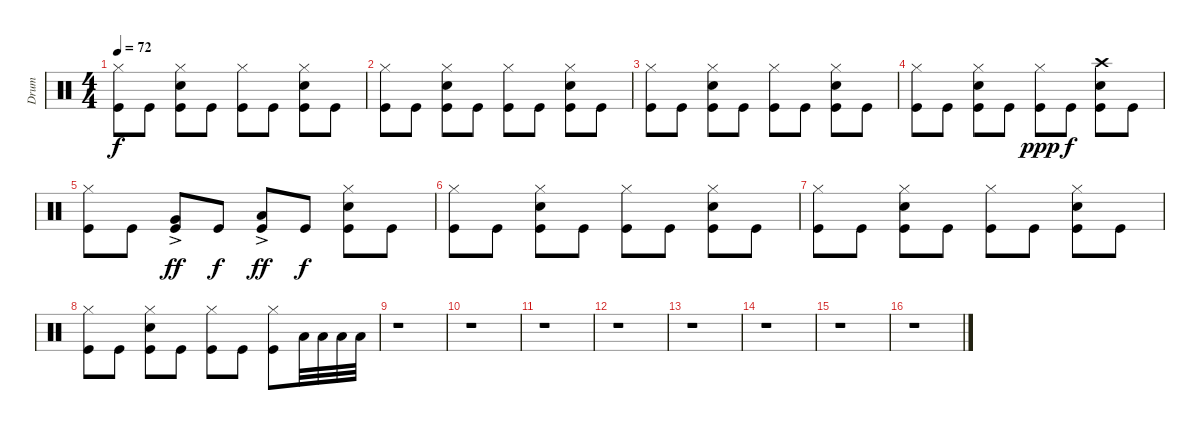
\track ("Drum" "Drum") {instrument percussion}
\staff {score}
\articulation defaults
\ts (4 4)
\tempo 72
\clef neutral
\ks c
("Hi-Hat (closed)" "Kick (hit)").8{dy f} "Kick (hit)".8 ("Kick (hit)" "Snare (hit) 2" "Hi-Hat (closed)").8 "Kick (hit)".8 ("Kick (hit)" "Hi-Hat (closed)").8 "Kick (hit)".8 ("Kick (hit)" "Snare (hit) 2" "Hi-Hat (closed)").8 "Kick (hit)".8 |
("Hi-Hat (closed)" "Kick (hit)").8 "Kick (hit)".8 ("Kick (hit)" "Snare (hit) 2" "Hi-Hat (closed)").8 "Kick (hit)".8 ("Kick (hit)" "Hi-Hat (closed)").8 "Kick (hit)".8 ("Kick (hit)" "Snare (hit) 2" "Hi-Hat (closed)").8 "Kick (hit)".8 |
("Hi-Hat (closed)" "Kick (hit)").8 "Kick (hit)".8 ("Kick (hit)" "Snare (hit) 2" "Hi-Hat (closed)").8 "Kick (hit)".8 ("Kick (hit)" "Hi-Hat (closed)").8 "Kick (hit)".8 ("Kick (hit)" "Snare (hit) 2" "Hi-Hat (closed)").8 "Kick (hit)".8 |
("Hi-Hat (closed)" "Kick (hit)").8 "Kick (hit)".8 ("Kick (hit)" "Snare (hit) 2" "Hi-Hat (closed)").8 "Kick (hit)".8 ("Kick (hit)" "Hi-Hat (closed)").8{dy ppp} "Kick (hit)".8{dy f} ("Kick (hit)" "Snare (hit) 2" "Crash high (hit)").8 "Kick (hit)".8 |
("Hi-Hat (closed)" "Kick (hit)").8 "Kick (hit)".8 ("Very Low Tom (hit)"{ac} "Kick (hit)").8{dy ff} "Kick (hit)".8{dy f} ("Kick (hit)" "Low Floor Tom (hit)"{ac}).8{dy ff} "Kick (hit)".8{dy f} ("Kick (hit)" "Snare (hit) 2" "Hi-Hat (closed)").8 "Kick (hit)".8 |
("Hi-Hat (closed)" "Kick (hit)").8 "Kick (hit)".8 ("Kick (hit)" "Snare (hit) 2" "Hi-Hat (closed)").8 "Kick (hit)".8 ("Kick (hit)" "Hi-Hat (closed)").8 "Kick (hit)".8 ("Kick (hit)" "Snare (hit) 2" "Hi-Hat (closed)").8 "Kick (hit)".8 |
("Hi-Hat (closed)" "Kick (hit)").8 "Kick (hit)".8 ("Kick (hit)" "Snare (hit) 2" "Hi-Hat (closed)").8 "Kick (hit)".8 ("Kick (hit)" "Hi-Hat (closed)").8 "Kick (hit)".8 ("Kick (hit)" "Snare (hit) 2" "Hi-Hat (closed)").8 "Kick (hit)".8 |
("Hi-Hat (closed)" "Kick (hit)").8 "Kick (hit)".8 ("Kick (hit)" "Snare (hit) 2" "Hi-Hat (closed)").8 "Kick (hit)".8 ("Kick (hit)" "Hi-Hat (closed)").8 "Kick (hit)".8 ("Kick (hit)" "Hi-Hat (closed)").8 "Low Tom (hit)".32 "Low Tom (hit)".32 "Low Tom (hit)".32 "Low Tom (hit)".32 |
r.1 |
r.1 |
r.1 |
r.1 |
r.1 |
r.1 |
r.1 |
r.1
